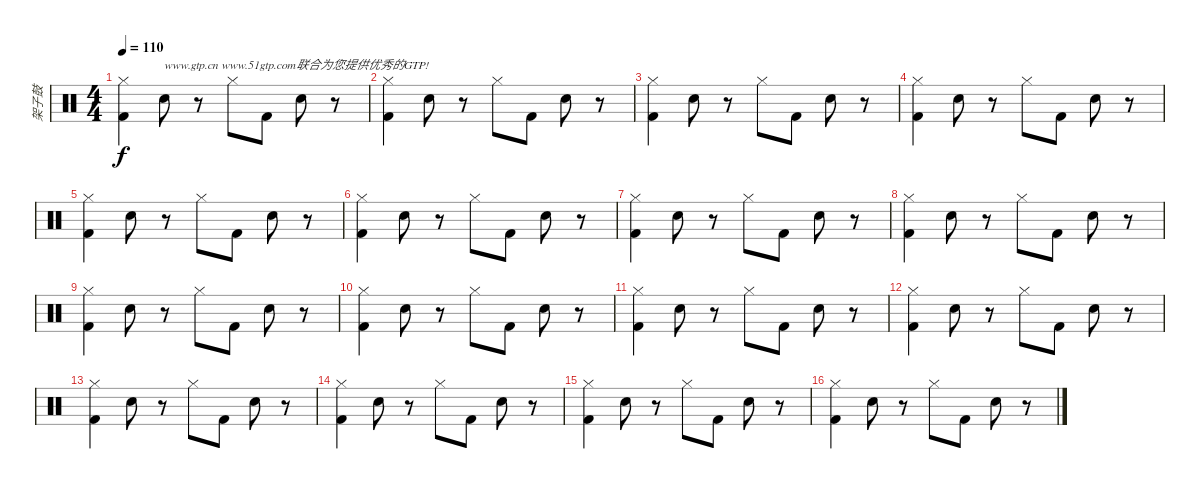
\track ("架子鼓" "架子鼓") {instrument percussion}
\staff {score}
\articulation defaults
\ts (4 4)
\tempo 110
\clef neutral
\ks c
("Hi-Hat (closed)" "Kick (hit) 2").4{dy f} "Snare (hit) 2".8{txt "www.gtp.cn www.51gtp.com联合为您提供优秀的GTP!"} r.8 "Hi-Hat (closed)".8 "Kick (hit) 2".8 "Snare (hit) 2".8 r.8 |
("Hi-Hat (closed)" "Kick (hit) 2").4 "Snare (hit) 2".8 r.8 "Hi-Hat (closed)".8 "Kick (hit) 2".8 "Snare (hit) 2".8 r.8 |
("Hi-Hat (closed)" "Kick (hit) 2").4 "Snare (hit) 2".8 r.8 "Hi-Hat (closed)".8 "Kick (hit) 2".8 "Snare (hit) 2".8 r.8 |
("Hi-Hat (closed)" "Kick (hit) 2").4 "Snare (hit) 2".8 r.8 "Hi-Hat (closed)".8 "Kick (hit) 2".8 "Snare (hit) 2".8 r.8 |
("Hi-Hat (closed)" "Kick (hit) 2").4 "Snare (hit) 2".8 r.8 "Hi-Hat (closed)".8 "Kick (hit) 2".8 "Snare (hit) 2".8 r.8 |
("Hi-Hat (closed)" "Kick (hit) 2").4 "Snare (hit) 2".8 r.8 "Hi-Hat (closed)".8 "Kick (hit) 2".8 "Snare (hit) 2".8 r.8 |
("Hi-Hat (closed)" "Kick (hit) 2").4 "Snare (hit) 2".8 r.8 "Hi-Hat (closed)".8 "Kick (hit) 2".8 "Snare (hit) 2".8 r.8 |
("Hi-Hat (closed)" "Kick (hit) 2").4 "Snare (hit) 2".8 r.8 "Hi-Hat (closed)".8 "Kick (hit) 2".8 "Snare (hit) 2".8 r.8 |
("Hi-Hat (closed)" "Kick (hit) 2").4 "Snare (hit) 2".8 r.8 "Hi-Hat (closed)".8 "Kick (hit) 2".8 "Snare (hit) 2".8 r.8 |
("Hi-Hat (closed)" "Kick (hit) 2").4 "Snare (hit) 2".8 r.8 "Hi-Hat (closed)".8 "Kick (hit) 2".8 "Snare (hit) 2".8 r.8 |
("Hi-Hat (closed)" "Kick (hit) 2").4 "Snare (hit) 2".8 r.8 "Hi-Hat (closed)".8 "Kick (hit) 2".8 "Snare (hit) 2".8 r.8 |
("Hi-Hat (closed)" "Kick (hit) 2").4 "Snare (hit) 2".8 r.8 "Hi-Hat (closed)".8 "Kick (hit) 2".8 "Snare (hit) 2".8 r.8 |
("Hi-Hat (closed)" "Kick (hit) 2").4 "Snare (hit) 2".8 r.8 "Hi-Hat (closed)".8 "Kick (hit) 2".8 "Snare (hit) 2".8 r.8 |
("Hi-Hat (closed)" "Kick (hit) 2").4 "Snare (hit) 2".8 r.8 "Hi-Hat (closed)".8 "Kick (hit) 2".8 "Snare (hit) 2".8 r.8 |
("Hi-Hat (closed)" "Kick (hit) 2").4 "Snare (hit) 2".8 r.8 "Hi-Hat (closed)".8 "Kick (hit) 2".8 "Snare (hit) 2".8 r.8 |
("Hi-Hat (closed)" "Kick (hit) 2").4 "Snare (hit) 2".8 r.8 "Hi-Hat (closed)".8 "Kick (hit) 2".8 "Snare (hit) 2".8 r.8
